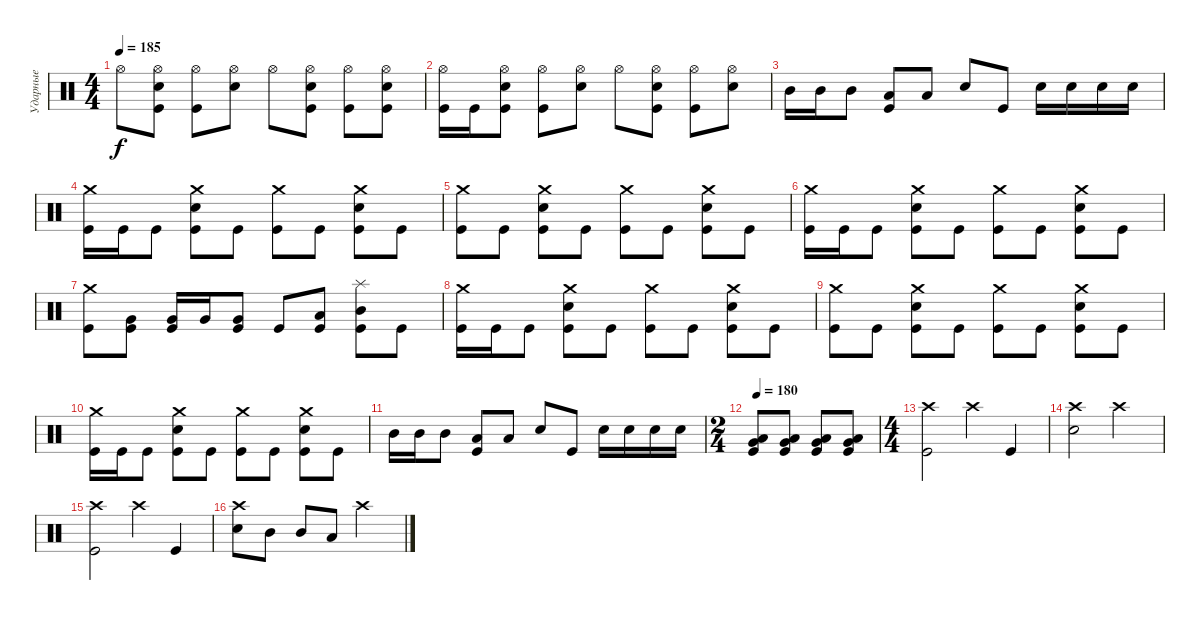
\track ("Ударные" "Ударные") {instrument percussion}
\staff {score}
\articulation defaults
\ts (4 4)
\tempo 185
\clef neutral
\ks c "Hi-Hat (open)".8{dy f}
("Hi-Hat (open)" "Snare (hit) 2" "Kick (hit)").8 ("Hi-Hat (open)" "Kick (hit)").8 ("Hi-Hat (open)" "Snare (hit) 2").8 "Hi-Hat (open)".8 ("Hi-Hat (open)" "Snare (hit) 2" "Kick (hit)").8 ("Hi-Hat (open)" "Kick (hit)").8 ("Hi-Hat (open)" "Snare (hit) 2" "Kick (hit)").8 |
("Hi-Hat (open)" "Kick (hit)").16 "Kick (hit)".16 ("Hi-Hat (open)" "Snare (hit) 2" "Kick (hit)").8 ("Hi-Hat (open)" "Kick (hit)").8 ("Hi-Hat (open)" "Snare (hit) 2").8 "Hi-Hat (open)".8 ("Hi-Hat (open)" "Snare (hit) 2" "Kick (hit)").8 ("Hi-Hat (open)" "Kick (hit)").8 ("Hi-Hat (open)" "Snare (hit) 2").8 |
"Mid Tom (hit)".16 "Mid Tom (hit)".16 "Mid Tom (hit)".8 ("Low Tom (hit)" "Kick (hit)").8 "Low Tom (hit)".8 "Snare (hit) 2".8 "Kick (hit)".8 "Snare (hit) 2".16 "Snare (hit) 2".16 "Snare (hit) 2".16 "Snare (hit) 2".16 |
("Crash medium (hit)" "Kick (hit)").16 "Kick (hit)".16 "Kick (hit)".8 ("Crash medium (hit)" "Snare (hit) 2" "Kick (hit)").8 "Kick (hit)".8 ("Crash medium (hit)" "Kick (hit)").8 "Kick (hit)".8 ("Crash medium (hit)" "Snare (hit) 2" "Kick (hit)").8 "Kick (hit)".8 |
("Crash medium (hit)" "Kick (hit)").8 "Kick (hit)".8 ("Crash medium (hit)" "Snare (hit) 2" "Kick (hit)").8 "Kick (hit)".8 ("Crash medium (hit)" "Kick (hit)").8 "Kick (hit)".8 ("Crash medium (hit)" "Snare (hit) 2" "Kick (hit)").8 "Kick (hit)".8 |
("Crash medium (hit)" "Kick (hit)").16 "Kick (hit)".16 "Kick (hit)".8 ("Crash medium (hit)" "Snare (hit) 2" "Kick (hit)").8 "Kick (hit)".8 ("Crash medium (hit)" "Kick (hit)").8 "Kick (hit)".8 ("Crash medium (hit)" "Snare (hit) 2" "Kick (hit)").8 "Kick (hit)".8 |
("Crash medium (hit)" "Kick (hit)").8 ("Very Low Tom (hit)" "Kick (hit)").8 ("Very Low Tom (hit)" "Kick (hit)").16 "Very Low Tom (hit)".16 ("Very Low Tom (hit)" "Kick (hit)").8 "Kick (hit)".8 ("Low Tom (hit)" "Kick (hit)").8 ("Splash (hit)" "Mid Tom (hit)" "Kick (hit)").8 "Kick (hit)".8 |
("Crash medium (hit)" "Kick (hit)").16 "Kick (hit)".16 "Kick (hit)".8 ("Crash medium (hit)" "Snare (hit) 2" "Kick (hit)").8 "Kick (hit)".8 ("Crash medium (hit)" "Kick (hit)").8 "Kick (hit)".8 ("Crash medium (hit)" "Snare (hit) 2" "Kick (hit)").8 "Kick (hit)".8 |
("Crash medium (hit)" "Kick (hit)").8 "Kick (hit)".8 ("Crash medium (hit)" "Snare (hit) 2" "Kick (hit)").8 "Kick (hit)".8 ("Crash medium (hit)" "Kick (hit)").8 "Kick (hit)".8 ("Crash medium (hit)" "Snare (hit) 2" "Kick (hit)").8 "Kick (hit)".8 |
("Crash medium (hit)" "Kick (hit)").16 "Kick (hit)".16 "Kick (hit)".8 ("Crash medium (hit)" "Snare (hit) 2" "Kick (hit)").8 "Kick (hit)".8 ("Crash medium (hit)" "Kick (hit)").8 "Kick (hit)".8 ("Crash medium (hit)" "Snare (hit) 2" "Kick (hit)").8 "Kick (hit)".8 |
"Mid Tom (hit)".16 "Mid Tom (hit)".16 "Mid Tom (hit)".8 ("Low Tom (hit)" "Kick (hit)").8 "Low Tom (hit)".8 "Snare (hit) 2".8 "Kick (hit)".8 "Snare (hit) 2".16 "Snare (hit) 2".16 "Snare (hit) 2".16 "Snare (hit) 2".16 |
\ts (2 4)
\tempo 180
("Very Low Tom (hit)" "Low Floor Tom (hit)" "Kick (hit)").8 ("Very Low Tom (hit)" "Low Floor Tom (hit)" "Kick (hit)").8 ("Very Low Tom (hit)" "Low Floor Tom (hit)" "Kick (hit)").8 ("Very Low Tom (hit)" "Low Floor Tom (hit)" "Kick (hit)").8 |
\ts (4 4)
("Crash high (hit)" "Kick (hit)").2 "Crash high (hit)".4 "Kick (hit)".4 |
("Crash high (hit)" "Snare (hit) 2").2 "Crash high (hit)".2 |
("Crash high (hit)" "Kick (hit)").2 "Crash high (hit)".4 "Kick (hit)".4 |
("Crash high (hit)" "Snare (hit) 2").8 "Mid Tom (hit)".8 "Mid Tom (hit)".8 "Low Tom (hit)".8 "Crash high (hit)".2
